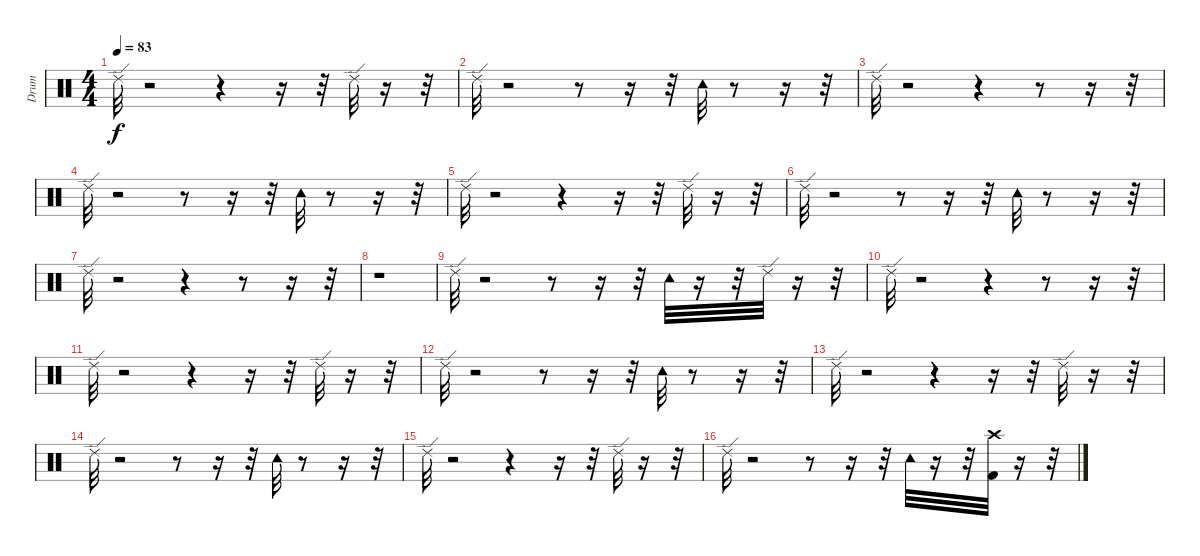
\track ("Drum" "Drum") {instrument percussion}
\staff {score}
\articulation defaults
\ts (4 4)
\tempo 83
\clef neutral
\ks c "Ride (edge) 2".32{dy f}
r.2 r.4 r.16 r.32 "Ride (edge) 2".32 r.16 r.32 |
"Ride (edge) 2".32 r.2 r.8 r.16 r.32 "Tambourine (hit)".32 r.8 r.16 r.32 |
"Ride (edge) 2".32 r.2 r.4 r.8 r.16 r.32 |
"Ride (edge) 2".32 r.2 r.8 r.16 r.32 "Tambourine (hit)".32 r.8 r.16 r.32 |
"Ride (edge) 2".32 r.2 r.4 r.16 r.32 "Ride (edge) 2".32 r.16 r.32 |
"Ride (edge) 2".32 r.2 r.8 r.16 r.32 "Tambourine (hit)".32 r.8 r.16 r.32 |
"Ride (edge) 2".32 r.2 r.4 r.8 r.16 r.32 |
r.1 |
"Ride (edge) 2".32 r.2 r.8 r.16 r.32 "Tambourine (hit)".32 r.16 r.32 "Ride (edge) 2".32 r.16 r.32 |
"Ride (edge) 2".32 r.2 r.4 r.8 r.16 r.32 |
"Ride (edge) 2".32 r.2 r.4 r.16 r.32 "Ride (edge) 2".32 r.16 r.32 |
"Ride (edge) 2".32 r.2 r.8 r.16 r.32 "Tambourine (hit)".32 r.8 r.16 r.32 |
"Ride (edge) 2".32 r.2 r.4 r.16 r.32 "Ride (edge) 2".32 r.16 r.32 |
"Ride (edge) 2".32 r.2 r.8 r.16 r.32 "Tambourine (hit)".32 r.8 r.16 r.32 |
"Ride (edge) 2".32 r.2 r.4 r.16 r.32 "Ride (edge) 2".32 r.16 r.32 |
"Ride (edge) 2".32 r.2 r.8 r.16 r.32 "Tambourine (hit)".32 r.16 r.32 ("Crash high (hit)" "Kick (hit) 2").32 r.16 r.32
